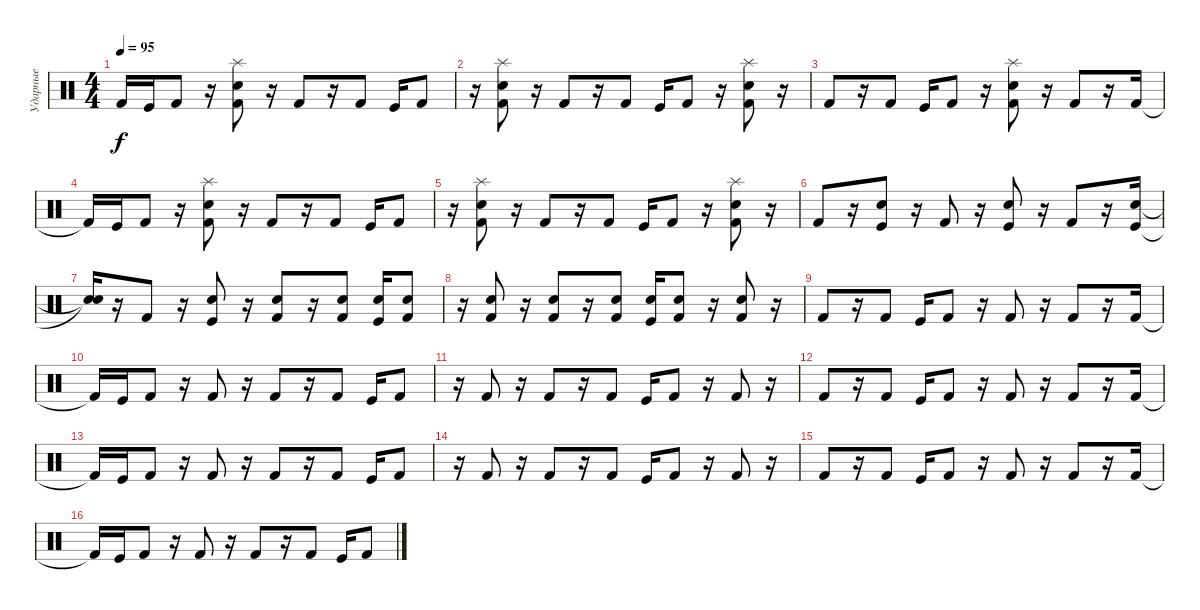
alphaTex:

\track ("Ударные" "Ударные") {instrument percussion}
\staff {score}
\articulation defaults
\ts (4 4)
\tempo 95
\clef neutral
\ks c "Kick (hit) 2"{t}.16{dy f} "Kick (hit)".16 "Kick (hit) 2".8
r.16 ("Kick (hit) 2" "Hand Clap (hit)" "Splash (hit)").8 r.16 "Kick (hit) 2".8 r.16 "Kick (hit) 2".8 "Kick (hit)".16 "Kick (hit) 2".8 |
r.16 ("Kick (hit) 2" "Hand Clap (hit)" "Splash (hit)").8 r.16 "Kick (hit) 2".8 r.16 "Kick (hit) 2".8 "Kick (hit)".16 "Kick (hit) 2".8 r.16 ("Kick (hit) 2" "Hand Clap (hit)" "Splash (hit)").8 r.16 |
"Kick (hit) 2".8 r.16 "Kick (hit) 2".8 "Kick (hit)".16 "Kick (hit) 2".8 r.16 ("Kick (hit) 2" "Hand Clap (hit)" "Splash (hit)").8 r.16 "Kick (hit) 2".8 r.16 "Kick (hit) 2".16 |
"Kick (hit) 2"{t}.16 "Kick (hit)".16 "Kick (hit) 2".8 r.16 ("Kick (hit) 2" "Hand Clap (hit)" "Splash (hit)").8 r.16 "Kick (hit) 2".8 r.16 "Kick (hit) 2".8 "Kick (hit)".16 "Kick (hit) 2".8 |
r.16 ("Kick (hit) 2" "Hand Clap (hit)" "Splash (hit)").8 r.16 "Kick (hit) 2".8 r.16 "Kick (hit) 2".8 "Kick (hit)".16 "Kick (hit) 2".8 r.16 ("Kick (hit) 2" "Hand Clap (hit)" "Splash (hit)").8 r.16 |
"Kick (hit) 2".8 r.16 ("Kick (hit)" "Hand Clap (hit)").8 r.16 "Kick (hit) 2".8 r.16 ("Kick (hit)" "Hand Clap (hit)").8 r.16 "Kick (hit) 2".8 r.16 ("Kick (hit)" "Hand Clap (hit)").16 |
("Snare (hit)"{t} "Snare (hit)"{t}).16 r.16 "Kick (hit) 2".8 r.16 ("Kick (hit)" "Hand Clap (hit)").8 r.16 ("Kick (hit) 2" "Hand Clap (hit)").8 r.16 ("Kick (hit) 2" "Hand Clap (hit)").8 ("Kick (hit)" "Hand Clap (hit)").16 ("Kick (hit) 2" "Hand Clap (hit)").8 |
r.16 ("Kick (hit) 2" "Hand Clap (hit)").8 r.16 ("Kick (hit) 2" "Hand Clap (hit)").8 r.16 ("Kick (hit) 2" "Hand Clap (hit)").8 ("Kick (hit)" "Hand Clap (hit)").16 ("Kick (hit) 2" "Hand Clap (hit)").8 r.16 ("Kick (hit) 2" "Hand Clap (hit)").8 r.16 |
"Kick (hit) 2".8 r.16 "Kick (hit) 2".8 "Kick (hit)".16 "Kick (hit) 2".8 r.16 "Kick (hit) 2".8 r.16 "Kick (hit) 2".8 r.16 "Kick (hit) 2".16 |
"Kick (hit) 2"{t}.16 "Kick (hit)".16 "Kick (hit) 2".8 r.16 "Kick (hit) 2".8 r.16 "Kick (hit) 2".8 r.16 "Kick (hit) 2".8 "Kick (hit)".16 "Kick (hit) 2".8 |
r.16 "Kick (hit) 2".8 r.16 "Kick (hit) 2".8 r.16 "Kick (hit) 2".8 "Kick (hit)".16 "Kick (hit) 2".8 r.16 "Kick (hit) 2".8 r.16 |
"Kick (hit) 2".8 r.16 "Kick (hit) 2".8 "Kick (hit)".16 "Kick (hit) 2".8 r.16 "Kick (hit) 2".8 r.16 "Kick (hit) 2".8 r.16 "Kick (hit) 2".16 |
"Kick (hit) 2"{t}.16 "Kick (hit)".16 "Kick (hit) 2".8 r.16 "Kick (hit) 2".8 r.16 "Kick (hit) 2".8 r.16 "Kick (hit) 2".8 "Kick (hit)".16 "Kick (hit) 2".8 |
r.16 "Kick (hit) 2".8 r.16 "Kick (hit) 2".8 r.16 "Kick (hit) 2".8 "Kick (hit)".16 "Kick (hit) 2".8 r.16 "Kick (hit) 2".8 r.16 |
"Kick (hit) 2".8 r.16 "Kick (hit) 2".8 "Kick (hit)".16 "Kick (hit) 2".8 r.16 "Kick (hit) 2".8 r.16 "Kick (hit) 2".8 r.16 "Kick (hit) 2".16 |
"Kick (hit) 2"{t}.16 "Kick (hit)".16 "Kick (hit) 2".8 r.16 "Kick (hit) 2".8 r.16 "Kick (hit) 2".8 r.16 "Kick (hit) 2".8 "Kick (hit)".16 "Kick (hit) 2".8
